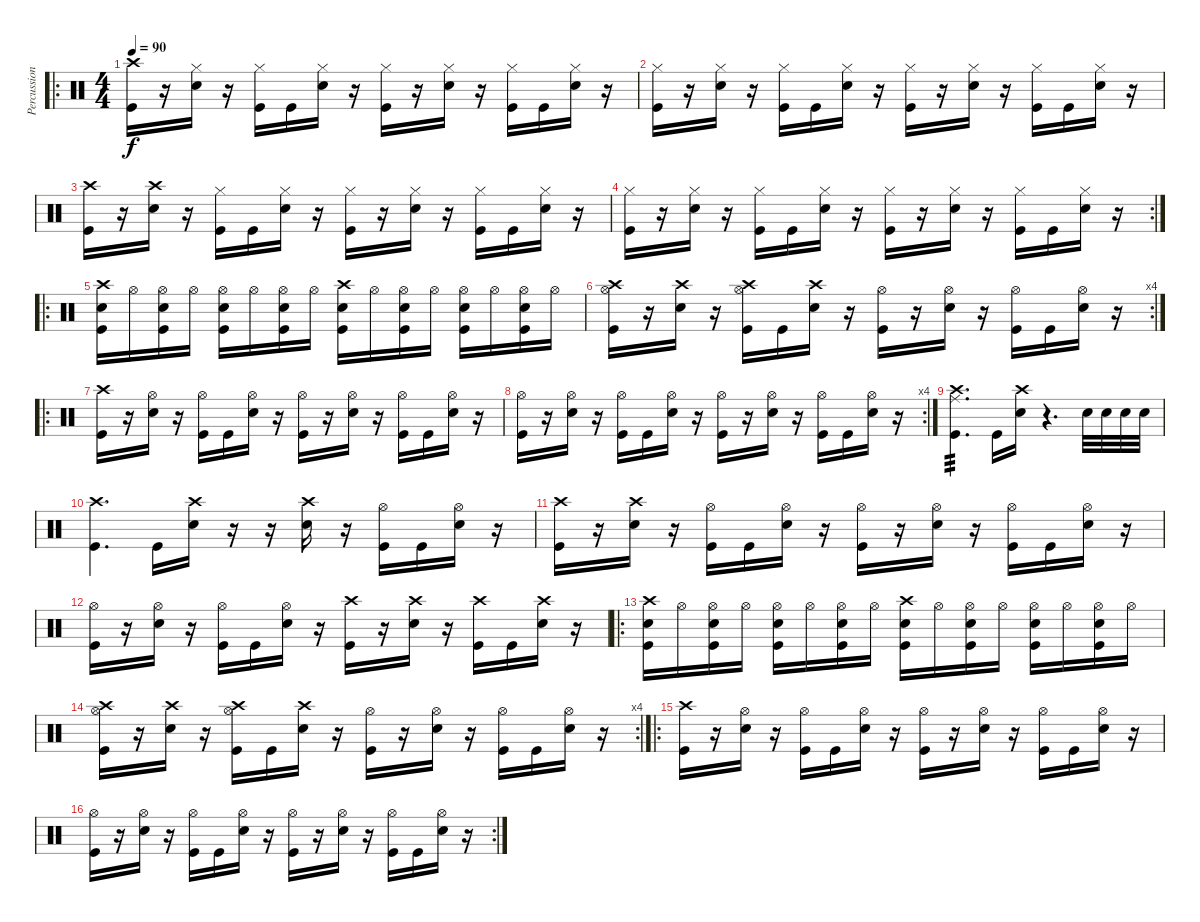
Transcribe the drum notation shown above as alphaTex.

\track ("Percussion" "Percussion") {instrument percussion}
\staff {score}
\articulation defaults
\ro
\ts (4 4)
\tempo 90
\clef neutral
\ks c
("Crash high (hit)" "Kick (hit)").16{dy f} r.16 ("Hi-Hat (closed)" "Snare (hit) 2").16 r.16 ("Hi-Hat (closed)" "Kick (hit)").16 "Kick (hit)".16 ("Hi-Hat (closed)" "Snare (hit) 2").16 r.16 ("Hi-Hat (closed)" "Kick (hit)").16 r.16 ("Hi-Hat (closed)" "Snare (hit) 2").16 r.16 ("Hi-Hat (closed)" "Kick (hit)").16 "Kick (hit)".16 ("Hi-Hat (closed)" "Snare (hit) 2").16 r.16 |
("Hi-Hat (closed)" "Kick (hit)").16 r.16 ("Hi-Hat (closed)" "Snare (hit) 2").16 r.16 ("Hi-Hat (closed)" "Kick (hit)").16 "Kick (hit)".16 ("Hi-Hat (closed)" "Snare (hit) 2").16 r.16 ("Hi-Hat (closed)" "Kick (hit)").16 r.16 ("Hi-Hat (closed)" "Snare (hit) 2").16 r.16 ("Hi-Hat (closed)" "Kick (hit)").16 "Kick (hit)".16 ("Hi-Hat (closed)" "Snare (hit) 2").16 r.16 |
("Crash high (hit)" "Kick (hit)").16 r.16 ("Crash high (hit)" "Snare (hit) 2").16 r.16 ("Hi-Hat (closed)" "Kick (hit)").16 "Kick (hit)".16 ("Hi-Hat (closed)" "Snare (hit) 2").16 r.16 ("Hi-Hat (closed)" "Kick (hit)").16 r.16 ("Hi-Hat (closed)" "Snare (hit) 2").16 r.16 ("Hi-Hat (closed)" "Kick (hit)").16 "Kick (hit)".16 ("Hi-Hat (closed)" "Snare (hit) 2").16 r.16 |
\rc 2
("Hi-Hat (closed)" "Kick (hit)").16 r.16 ("Hi-Hat (closed)" "Snare (hit) 2").16 r.16 ("Hi-Hat (closed)" "Kick (hit)").16 "Kick (hit)".16 ("Hi-Hat (closed)" "Snare (hit) 2").16 r.16 ("Hi-Hat (closed)" "Kick (hit)").16 r.16 ("Hi-Hat (closed)" "Snare (hit) 2").16 r.16 ("Hi-Hat (closed)" "Kick (hit)").16 "Kick (hit)".16 ("Hi-Hat (closed)" "Snare (hit) 2").16 r.16 |
\ro
("Snare (hit) 2" "Kick (hit)" "Crash high (hit)").16 "Hi-Hat (open)".16 ("Snare (hit) 2" "Kick (hit)" "Hi-Hat (open)").16 "Hi-Hat (open)".16 ("Snare (hit) 2" "Kick (hit)" "Hi-Hat (open)").16 "Hi-Hat (open)".16 ("Snare (hit) 2" "Kick (hit)" "Hi-Hat (open)").16 "Hi-Hat (open)".16 ("Snare (hit) 2" "Kick (hit)" "Crash high (hit)").16 "Hi-Hat (open)".16 ("Snare (hit) 2" "Kick (hit)" "Hi-Hat (open)").16 "Hi-Hat (open)".16 ("Snare (hit) 2" "Kick (hit)" "Hi-Hat (open)").16 "Hi-Hat (open)".16 ("Snare (hit) 2" "Kick (hit)" "Hi-Hat (open)").16 "Hi-Hat (open)".16 |
\rc 4
("Crash high (hit)" "Hi-Hat (open)" "Kick (hit)").16 r.16 ("Crash high (hit)" "Snare (hit) 2").16 r.16 ("Crash high (hit)" "Hi-Hat (open)" "Kick (hit)").16 "Kick (hit)".16 ("Crash high (hit)" "Snare (hit) 2").16 r.16 ("Hi-Hat (open)" "Kick (hit)").16 r.16 ("Hi-Hat (open)" "Snare (hit) 2").16 r.16 ("Hi-Hat (open)" "Kick (hit)").16 "Kick (hit)".16 ("Hi-Hat (open)" "Snare (hit) 2").16 r.16 |
\ro
("Crash high (hit)" "Kick (hit)").16 r.16 ("Hi-Hat (open)" "Snare (hit) 2").16 r.16 ("Hi-Hat (open)" "Kick (hit)").16 "Kick (hit)".16 ("Hi-Hat (open)" "Snare (hit) 2").16 r.16 ("Hi-Hat (open)" "Kick (hit)").16 r.16 ("Hi-Hat (open)" "Snare (hit) 2").16 r.16 ("Hi-Hat (open)" "Kick (hit)").16 "Kick (hit)".16 ("Hi-Hat (open)" "Snare (hit) 2").16 r.16 |
\rc 4
("Hi-Hat (open)" "Kick (hit)").16 r.16 ("Hi-Hat (open)" "Snare (hit) 2").16 r.16 ("Hi-Hat (open)" "Kick (hit)").16 "Kick (hit)".16 ("Hi-Hat (open)" "Snare (hit) 2").16 r.16 ("Hi-Hat (open)" "Kick (hit)").16 r.16 ("Hi-Hat (open)" "Snare (hit) 2").16 r.16 ("Hi-Hat (open)" "Kick (hit)").16 "Kick (hit)".16 ("Hi-Hat (open)" "Snare (hit) 2").16 r.16 |
("Crash high (hit)" "Ride (middle)" "Kick (hit)").4{d tp 3} "Kick (hit)".16 ("Crash high (hit)" "Snare (hit) 2").16 r.4{d} "Snare (hit) 2".32 "Snare (hit) 2".32 "Snare (hit) 2".32 "Snare (hit) 2".32 |
("Crash high (hit)" "Kick (hit)").4{d} "Kick (hit)".16 ("Crash high (hit)" "Snare (hit) 2").16 r.16 r.16 ("Crash high (hit)" "Snare (hit) 2").16 r.16 ("Hi-Hat (open)" "Kick (hit)").16 "Kick (hit)".16 ("Hi-Hat (open)" "Snare (hit) 2").16 r.16 |
("Crash high (hit)" "Kick (hit)").16 r.16 ("Crash high (hit)" "Snare (hit) 2").16 r.16 ("Hi-Hat (open)" "Kick (hit)").16 "Kick (hit)".16 ("Hi-Hat (open)" "Snare (hit) 2").16 r.16 ("Hi-Hat (open)" "Kick (hit)").16 r.16 ("Hi-Hat (open)" "Snare (hit) 2").16 r.16 ("Hi-Hat (open)" "Kick (hit)").16 "Kick (hit)".16 ("Hi-Hat (open)" "Snare (hit) 2").16 r.16 |
("Hi-Hat (open)" "Kick (hit)").16 r.16 ("Hi-Hat (open)" "Snare (hit) 2").16 r.16 ("Hi-Hat (open)" "Kick (hit)").16 "Kick (hit)".16 ("Hi-Hat (open)" "Snare (hit) 2").16 r.16 ("Crash high (hit)" "Kick (hit)").16 r.16 ("Crash high (hit)" "Snare (hit) 2").16 r.16 ("Crash high (hit)" "Kick (hit)").16 "Kick (hit)".16 ("Crash high (hit)" "Snare (hit) 2").16 r.16 |
\ro
("Snare (hit) 2" "Kick (hit)" "Crash high (hit)").16 "Hi-Hat (open)".16 ("Snare (hit) 2" "Kick (hit)" "Hi-Hat (open)").16 "Hi-Hat (open)".16 ("Snare (hit) 2" "Kick (hit)" "Hi-Hat (open)").16 "Hi-Hat (open)".16 ("Snare (hit) 2" "Kick (hit)" "Hi-Hat (open)").16 "Hi-Hat (open)".16 ("Snare (hit) 2" "Kick (hit)" "Crash high (hit)").16 "Hi-Hat (open)".16 ("Snare (hit) 2" "Kick (hit)" "Hi-Hat (open)").16 "Hi-Hat (open)".16 ("Snare (hit) 2" "Kick (hit)" "Hi-Hat (open)").16 "Hi-Hat (open)".16 ("Snare (hit) 2" "Kick (hit)" "Hi-Hat (open)").16 "Hi-Hat (open)".16 |
\rc 4
("Crash high (hit)" "Hi-Hat (open)" "Kick (hit)").16 r.16 ("Crash high (hit)" "Snare (hit) 2").16 r.16 ("Crash high (hit)" "Hi-Hat (open)" "Kick (hit)").16 "Kick (hit)".16 ("Crash high (hit)" "Snare (hit) 2").16 r.16 ("Hi-Hat (open)" "Kick (hit)").16 r.16 ("Hi-Hat (open)" "Snare (hit) 2").16 r.16 ("Hi-Hat (open)" "Kick (hit)").16 "Kick (hit)".16 ("Hi-Hat (open)" "Snare (hit) 2").16 r.16 |
\ro
("Crash high (hit)" "Kick (hit)").16 r.16 ("Hi-Hat (open)" "Snare (hit) 2").16 r.16 ("Hi-Hat (open)" "Kick (hit)").16 "Kick (hit)".16 ("Hi-Hat (open)" "Snare (hit) 2").16 r.16 ("Hi-Hat (open)" "Kick (hit)").16 r.16 ("Hi-Hat (open)" "Snare (hit) 2").16 r.16 ("Hi-Hat (open)" "Kick (hit)").16 "Kick (hit)".16 ("Hi-Hat (open)" "Snare (hit) 2").16 r.16 |
\rc 2
("Hi-Hat (open)" "Kick (hit)").16 r.16 ("Hi-Hat (open)" "Snare (hit) 2").16 r.16 ("Hi-Hat (open)" "Kick (hit)").16 "Kick (hit)".16 ("Hi-Hat (open)" "Snare (hit) 2").16 r.16 ("Hi-Hat (open)" "Kick (hit)").16 r.16 ("Hi-Hat (open)" "Snare (hit) 2").16 r.16 ("Hi-Hat (open)" "Kick (hit)").16 "Kick (hit)".16 ("Hi-Hat (open)" "Snare (hit) 2").16 r.16
